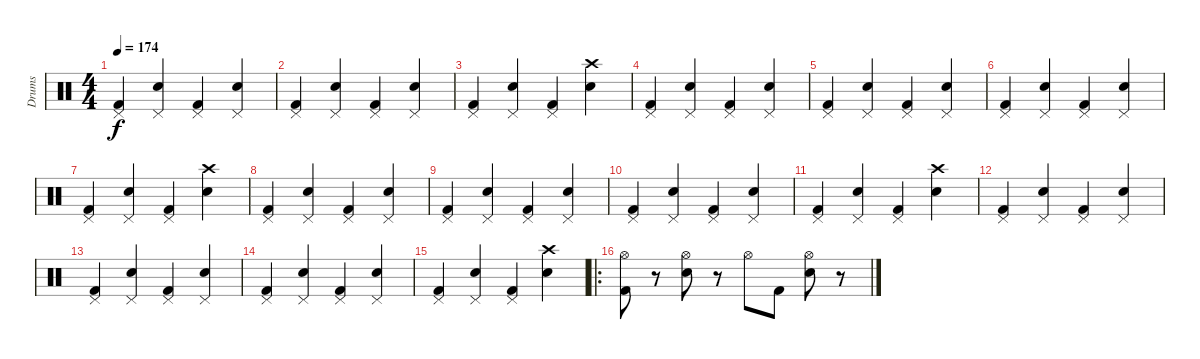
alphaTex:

\track ("Drums" "Drums") {instrument percussion}
\staff {score}
\articulation defaults
\ts (4 4)
\tempo 174
\clef neutral
\ks c
("Pedal Hi-Hat (hit)" "Kick (hit) 2").4{dy f} ("Pedal Hi-Hat (hit)" "Snare (hit) 2").4 ("Pedal Hi-Hat (hit)" "Kick (hit) 2").4 ("Pedal Hi-Hat (hit)" "Snare (hit) 2").4 |
("Pedal Hi-Hat (hit)" "Kick (hit) 2").4 ("Pedal Hi-Hat (hit)" "Snare (hit) 2").4 ("Pedal Hi-Hat (hit)" "Kick (hit) 2").4 ("Pedal Hi-Hat (hit)" "Snare (hit) 2").4 |
("Pedal Hi-Hat (hit)" "Kick (hit) 2").4 ("Pedal Hi-Hat (hit)" "Snare (hit) 2").4 ("Pedal Hi-Hat (hit)" "Kick (hit) 2").4 ("Crash high (hit)" "Snare (hit) 2").4 |
("Pedal Hi-Hat (hit)" "Kick (hit) 2").4{volume 13} ("Pedal Hi-Hat (hit)" "Snare (hit) 2").4 ("Pedal Hi-Hat (hit)" "Kick (hit) 2").4 ("Pedal Hi-Hat (hit)" "Snare (hit) 2").4 |
("Pedal Hi-Hat (hit)" "Kick (hit) 2").4 ("Pedal Hi-Hat (hit)" "Snare (hit) 2").4 ("Pedal Hi-Hat (hit)" "Kick (hit) 2").4 ("Pedal Hi-Hat (hit)" "Snare (hit) 2").4 |
("Pedal Hi-Hat (hit)" "Kick (hit) 2").4 ("Pedal Hi-Hat (hit)" "Snare (hit) 2").4 ("Pedal Hi-Hat (hit)" "Kick (hit) 2").4 ("Pedal Hi-Hat (hit)" "Snare (hit) 2").4 |
("Pedal Hi-Hat (hit)" "Kick (hit) 2").4 ("Pedal Hi-Hat (hit)" "Snare (hit) 2").4 ("Pedal Hi-Hat (hit)" "Kick (hit) 2").4 ("Crash high (hit)" "Snare (hit) 2").4 |
("Pedal Hi-Hat (hit)" "Kick (hit) 2").4{volume 13} ("Pedal Hi-Hat (hit)" "Snare (hit) 2").4 ("Pedal Hi-Hat (hit)" "Kick (hit) 2").4 ("Pedal Hi-Hat (hit)" "Snare (hit) 2").4 |
("Pedal Hi-Hat (hit)" "Kick (hit) 2").4 ("Pedal Hi-Hat (hit)" "Snare (hit) 2").4 ("Pedal Hi-Hat (hit)" "Kick (hit) 2").4 ("Pedal Hi-Hat (hit)" "Snare (hit) 2").4 |
("Pedal Hi-Hat (hit)" "Kick (hit) 2").4 ("Pedal Hi-Hat (hit)" "Snare (hit) 2").4 ("Pedal Hi-Hat (hit)" "Kick (hit) 2").4 ("Pedal Hi-Hat (hit)" "Snare (hit) 2").4 |
("Pedal Hi-Hat (hit)" "Kick (hit) 2").4 ("Pedal Hi-Hat (hit)" "Snare (hit) 2").4 ("Pedal Hi-Hat (hit)" "Kick (hit) 2").4 ("Crash high (hit)" "Snare (hit) 2").4 |
("Pedal Hi-Hat (hit)" "Kick (hit) 2").4{volume 13} ("Pedal Hi-Hat (hit)" "Snare (hit) 2").4 ("Pedal Hi-Hat (hit)" "Kick (hit) 2").4 ("Pedal Hi-Hat (hit)" "Snare (hit) 2").4 |
("Pedal Hi-Hat (hit)" "Kick (hit) 2").4 ("Pedal Hi-Hat (hit)" "Snare (hit) 2").4 ("Pedal Hi-Hat (hit)" "Kick (hit) 2").4 ("Pedal Hi-Hat (hit)" "Snare (hit) 2").4 |
("Pedal Hi-Hat (hit)" "Kick (hit) 2").4 ("Pedal Hi-Hat (hit)" "Snare (hit) 2").4 ("Pedal Hi-Hat (hit)" "Kick (hit) 2").4 ("Pedal Hi-Hat (hit)" "Snare (hit) 2").4 |
("Pedal Hi-Hat (hit)" "Kick (hit) 2").4 ("Pedal Hi-Hat (hit)" "Snare (hit) 2").4 ("Pedal Hi-Hat (hit)" "Kick (hit) 2").4 ("Crash high (hit)" "Snare (hit) 2").4 |
\ro
("Hi-Hat (open)" "Kick (hit) 2").8 r.8 ("Hi-Hat (open)" "Snare (hit) 2").8 r.8 "Hi-Hat (open)".8 "Kick (hit) 2".8 ("Hi-Hat (open)" "Snare (hit) 2").8 r.8
